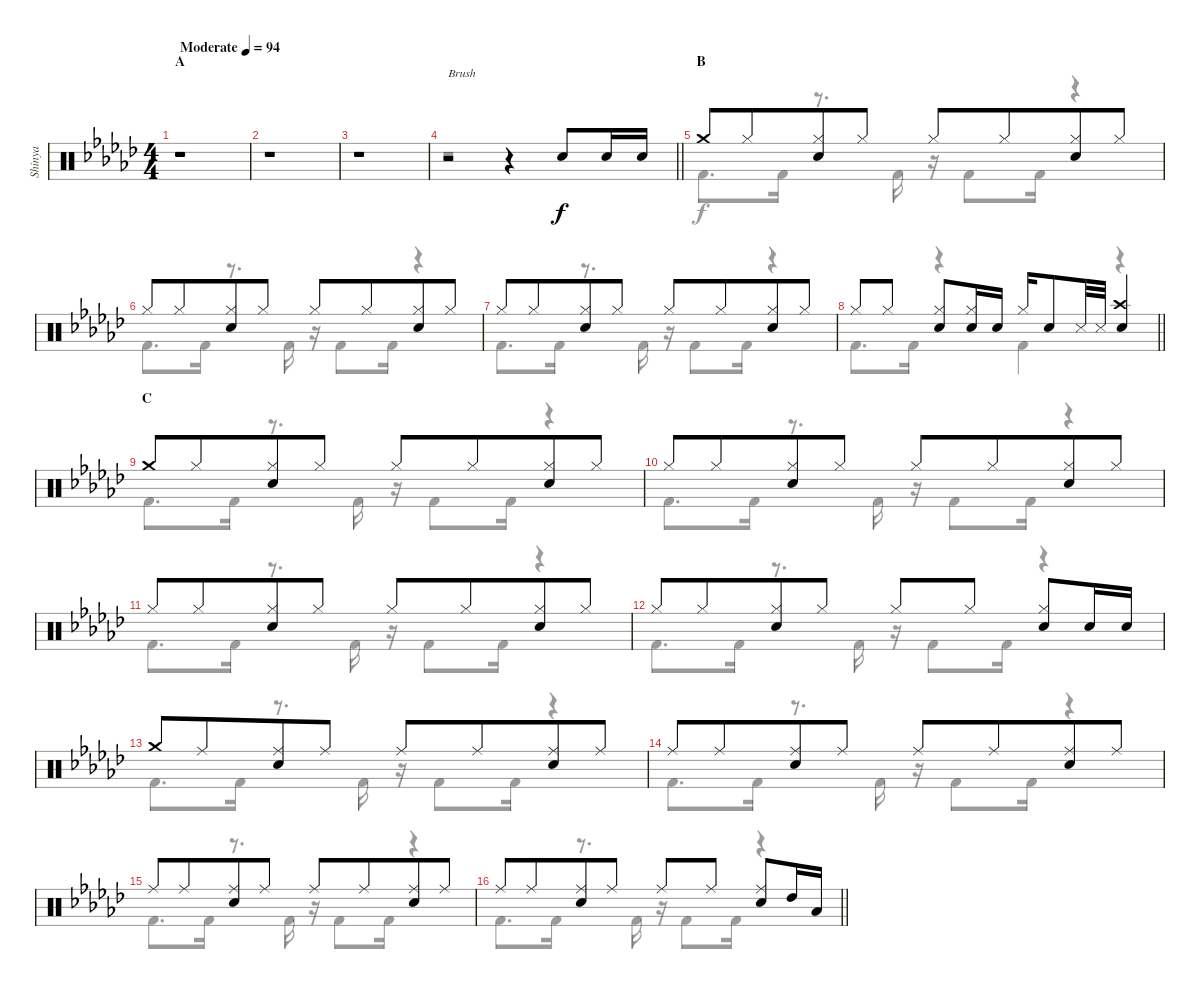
\track ("Shinya" "Shinya") {instrument percussion}
\staff {score}
\articulation defaults
\voice
\ts (4 4)
\section ("" "A")
\tempo (94 "Moderate")
\clef neutral
\ks ebminor
r.1{dy f} |
r.1 |
r.1 |
\barLineRight lightlight
r.2{txt "Brush"} r.4 "Snare (hit) 2".8 "Snare (hit) 2".16 "Snare (hit) 2".16 |
\section ("" "B")
"Crash medium (hit)".8 "Hi-Hat (closed)".8{beam merge} ("Hi-Hat (closed)" "Snare (hit) 2").8 "Hi-Hat (closed)".8 "Hi-Hat (closed)".8 "Hi-Hat (closed)".8{beam merge} ("Hi-Hat (closed)" "Snare (hit) 2").8 "Hi-Hat (closed)".8 |
"Hi-Hat (closed)".8 "Hi-Hat (closed)".8{beam merge} ("Hi-Hat (closed)" "Snare (hit) 2").8 "Hi-Hat (closed)".8 "Hi-Hat (closed)".8 "Hi-Hat (closed)".8{beam merge} ("Hi-Hat (closed)" "Snare (hit) 2").8 "Hi-Hat (closed)".8 |
"Hi-Hat (closed)".8 "Hi-Hat (closed)".8{beam merge} ("Hi-Hat (closed)" "Snare (hit) 2").8 "Hi-Hat (closed)".8 "Hi-Hat (closed)".8 "Hi-Hat (closed)".8{beam merge} ("Hi-Hat (closed)" "Snare (hit) 2").8 "Hi-Hat (closed)".8 |
\barLineRight lightlight "Hi-Hat (closed)".8 "Hi-Hat (closed)".8
("Hi-Hat (closed)" "Snare (hit) 2").8 ("Hi-Hat (closed)" "Snare (hit) 2").16 "Snare (hit) 2".16 "Hi-Hat (closed)".16 "Snare (hit) 2".8 "Metronome (hit)".32 "Metronome (hit)".32 ("Crash high (hit)" "Snare (hit) 2").4 |
\section ("" "C")
"Crash medium (hit)".8 "Hi-Hat (closed)".8{beam merge} ("Hi-Hat (closed)" "Snare (hit) 2").8 "Hi-Hat (closed)".8 "Hi-Hat (closed)".8 "Hi-Hat (closed)".8{beam merge} ("Hi-Hat (closed)" "Snare (hit) 2").8 "Hi-Hat (closed)".8 |
"Hi-Hat (closed)".8 "Hi-Hat (closed)".8{beam merge} ("Hi-Hat (closed)" "Snare (hit) 2").8 "Hi-Hat (closed)".8 "Hi-Hat (closed)".8 "Hi-Hat (closed)".8{beam merge} ("Hi-Hat (closed)" "Snare (hit) 2").8 "Hi-Hat (closed)".8 |
"Hi-Hat (closed)".8 "Hi-Hat (closed)".8{beam merge} ("Hi-Hat (closed)" "Snare (hit) 2").8 "Hi-Hat (closed)".8 "Hi-Hat (closed)".8 "Hi-Hat (closed)".8{beam merge} ("Hi-Hat (closed)" "Snare (hit) 2").8 "Hi-Hat (closed)".8 |
"Hi-Hat (closed)".8 "Hi-Hat (closed)".8{beam merge} ("Hi-Hat (closed)" "Snare (hit) 2").8 "Hi-Hat (closed)".8 "Hi-Hat (closed)".8 "Hi-Hat (closed)".8{beam split} ("Hi-Hat (closed)" "Snare (hit) 2").8 "Snare (hit) 2".16 "Snare (hit) 2".16 |
"Crash medium (hit)".8 "Ride (middle)".8{beam merge} ("Ride (middle)" "Snare (hit) 2").8 "Ride (middle)".8 "Ride (middle)".8 "Ride (middle)".8{beam merge} ("Ride (middle)" "Snare (hit) 2").8 "Ride (middle)".8 |
"Ride (middle)".8 "Ride (middle)".8{beam merge} ("Ride (middle)" "Snare (hit) 2").8 "Ride (middle)".8 "Ride (middle)".8 "Ride (middle)".8{beam merge} ("Ride (middle)" "Snare (hit) 2").8 "Ride (middle)".8 |
"Ride (middle)".8 "Ride (middle)".8{beam merge} ("Ride (middle)" "Snare (hit) 2").8 "Ride (middle)".8 "Ride (middle)".8 "Ride (middle)".8{beam merge} ("Ride (middle)" "Snare (hit) 2").8 "Ride (middle)".8 |
\barLineRight lightlight "Ride (middle)".8 "Ride (middle)".8{beam merge}
("Ride (middle)" "Snare (hit) 2").8 "Ride (middle)".8 "Ride (middle)".8 "Ride (middle)".8{beam split} ("Ride (middle)" "Snare (hit) 2").8 "High Tom (hit)".16 "Low Tom (hit)".16
\voice
\clef neutral
\ottava regular
\simile none
\ks ebminor
r.1{dy f} |
r.1 |
r.1 |
\barLineRight lightlight
r.1 |
"Kick (hit) 2".8{d} "Kick (hit) 2".16 r.8{d} "Kick (hit) 2".16 r.16 "Kick (hit) 2".8 "Kick (hit) 2".16 r.4 |
"Kick (hit) 2".8{d} "Kick (hit) 2".16 r.8{d} "Kick (hit) 2".16 r.16 "Kick (hit) 2".8 "Kick (hit) 2".16 r.4 |
"Kick (hit) 2".8{d} "Kick (hit) 2".16 r.8{d} "Kick (hit) 2".16 r.16 "Kick (hit) 2".8 "Kick (hit) 2".16 r.4 |
\barLineRight lightlight "Kick (hit) 2".8{d} "Kick (hit) 2".16
r.4 "Kick (hit) 2".4 r.4 |
"Kick (hit) 2".8{d} "Kick (hit) 2".16 r.8{d} "Kick (hit) 2".16 r.16 "Kick (hit) 2".8 "Kick (hit) 2".16 r.4 |
"Kick (hit) 2".8{d} "Kick (hit) 2".16 r.8{d} "Kick (hit) 2".16 r.16 "Kick (hit) 2".8 "Kick (hit) 2".16 r.4 |
"Kick (hit) 2".8{d} "Kick (hit) 2".16 r.8{d} "Kick (hit) 2".16 r.16 "Kick (hit) 2".8 "Kick (hit) 2".16 r.4 |
"Kick (hit) 2".8{d} "Kick (hit) 2".16 r.8{d} "Kick (hit) 2".16 r.16 "Kick (hit) 2".8 "Kick (hit) 2".16 r.4 |
"Kick (hit) 2".8{d} "Kick (hit) 2".16 r.8{d} "Kick (hit) 2".16 r.16 "Kick (hit) 2".8 "Kick (hit) 2".16 r.4 |
"Kick (hit) 2".8{d} "Kick (hit) 2".16 r.8{d} "Kick (hit) 2".16 r.16 "Kick (hit) 2".8 "Kick (hit) 2".16 r.4 |
"Kick (hit) 2".8{d} "Kick (hit) 2".16 r.8{d} "Kick (hit) 2".16 r.16 "Kick (hit) 2".8 "Kick (hit) 2".16 r.4 |
\barLineRight lightlight "Kick (hit) 2".8{d} "Kick (hit) 2".16
r.8{d} "Kick (hit) 2".16 r.16 "Kick (hit) 2".8 "Kick (hit) 2".16 r.4
